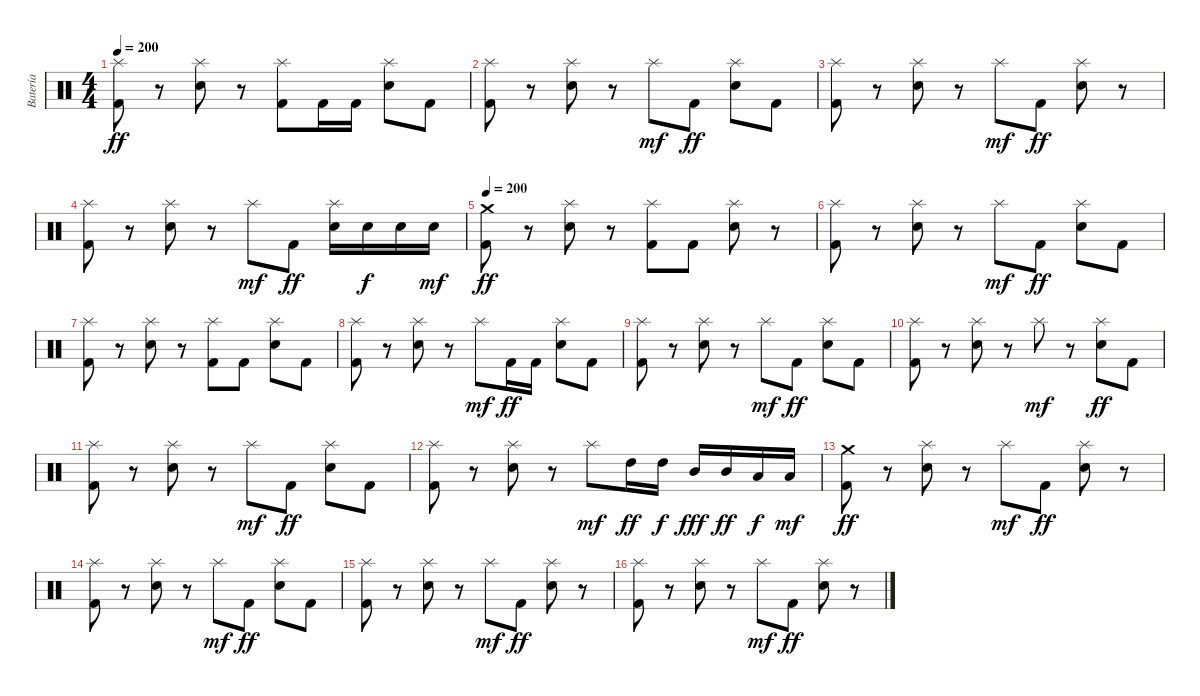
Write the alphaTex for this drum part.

\track ("Batería" "Batería") {instrument percussion}
\staff {score}
\articulation defaults
\ts (4 4)
\tempo 200
\clef neutral
\ks c
("Splash (hit)" "Kick (hit) 2").8{dy ff} r.8 ("Splash (hit)" "Electric Snare (hit)").8 r.8 ("Splash (hit)" "Kick (hit) 2").8 "Kick (hit) 2".16 "Kick (hit) 2".16 ("Splash (hit)" "Electric Snare (hit)").8 "Kick (hit) 2".8 |
("Splash (hit)" "Kick (hit) 2").8 r.8 ("Splash (hit)" "Electric Snare (hit)").8 r.8 "Splash (hit)".8{dy mf} "Kick (hit) 2".8{dy ff} ("Splash (hit)" "Electric Snare (hit)").8 "Kick (hit) 2".8 |
("Splash (hit)" "Kick (hit) 2").8 r.8 ("Splash (hit)" "Electric Snare (hit)").8 r.8 "Splash (hit)".8{dy mf} "Kick (hit) 2".8{dy ff} ("Splash (hit)" "Electric Snare (hit)").8 r.8 |
("Splash (hit)" "Kick (hit) 2").8 r.8 ("Splash (hit)" "Electric Snare (hit)").8 r.8 "Splash (hit)".8{dy mf} "Kick (hit) 2".8{dy ff} ("Splash (hit)" "Electric Snare (hit)").16 "Electric Snare (hit)".16{dy f} "Electric Snare (hit)".16 "Electric Snare (hit)".16{dy mf} |
\tempo 200
("Crash medium (hit)" "Kick (hit) 2").8{dy ff} r.8 ("Splash (hit)" "Electric Snare (hit)").8 r.8 ("Splash (hit)" "Kick (hit) 2").8 "Kick (hit) 2".8 ("Splash (hit)" "Electric Snare (hit)").8 r.8 |
("Splash (hit)" "Kick (hit) 2").8 r.8 ("Splash (hit)" "Electric Snare (hit)").8 r.8 "Splash (hit)".8{dy mf} "Kick (hit) 2".8{dy ff} ("Splash (hit)" "Electric Snare (hit)").8 "Kick (hit) 2".8 |
("Splash (hit)" "Kick (hit) 2").8 r.8 ("Splash (hit)" "Electric Snare (hit)").8 r.8 ("Splash (hit)" "Kick (hit) 2").8 "Kick (hit) 2".8 ("Splash (hit)" "Electric Snare (hit)").8 "Kick (hit) 2".8 |
("Splash (hit)" "Kick (hit) 2").8 r.8 ("Splash (hit)" "Electric Snare (hit)").8 r.8 "Splash (hit)".8{dy mf} "Kick (hit) 2".16{dy ff} "Kick (hit) 2".16 ("Splash (hit)" "Electric Snare (hit)").8 "Kick (hit) 2".8 |
("Splash (hit)" "Kick (hit) 2").8 r.8 ("Splash (hit)" "Electric Snare (hit)").8 r.8 "Splash (hit)".8{dy mf} "Kick (hit) 2".8{dy ff} ("Splash (hit)" "Electric Snare (hit)").8 "Kick (hit) 2".8 |
("Splash (hit)" "Kick (hit) 2").8 r.8 ("Splash (hit)" "Electric Snare (hit)").8 r.8 "Splash (hit)".8{dy mf} r.8 ("Splash (hit)" "Electric Snare (hit)").8{dy ff} "Kick (hit) 2".8 |
("Splash (hit)" "Kick (hit) 2").8 r.8 ("Splash (hit)" "Electric Snare (hit)").8 r.8 "Splash (hit)".8{dy mf} "Kick (hit) 2".8{dy ff} ("Splash (hit)" "Electric Snare (hit)").8 "Kick (hit) 2".8 |
("Splash (hit)" "Kick (hit) 2").8 r.8 ("Splash (hit)" "Electric Snare (hit)").8 r.8 "Splash (hit)".8{dy mf} "High Tom (hit)".16{dy ff} "High Tom (hit)".16{dy f} "Mid Tom (hit)".16{dy fff} "Mid Tom (hit)".16{dy ff} "Low Tom (hit)".16{dy f} "Low Tom (hit)".16{dy mf} |
("Crash medium (hit)" "Kick (hit) 2").8{dy ff} r.8 ("Splash (hit)" "Electric Snare (hit)").8 r.8 "Splash (hit)".8{dy mf} "Kick (hit) 2".8{dy ff} ("Splash (hit)" "Electric Snare (hit)").8 r.8 |
("Splash (hit)" "Kick (hit) 2").8 r.8 ("Splash (hit)" "Electric Snare (hit)").8 r.8 "Splash (hit)".8{dy mf} "Kick (hit) 2".8{dy ff} ("Splash (hit)" "Electric Snare (hit)").8 "Kick (hit) 2".8 |
("Splash (hit)" "Kick (hit) 2").8 r.8 ("Splash (hit)" "Electric Snare (hit)").8 r.8 "Splash (hit)".8{dy mf} "Kick (hit) 2".8{dy ff} ("Splash (hit)" "Electric Snare (hit)").8 r.8 |
("Splash (hit)" "Kick (hit) 2").8 r.8 ("Splash (hit)" "Electric Snare (hit)").8 r.8 "Splash (hit)".8{dy mf} "Kick (hit) 2".8{dy ff} ("Splash (hit)" "Electric Snare (hit)").8 r.8
